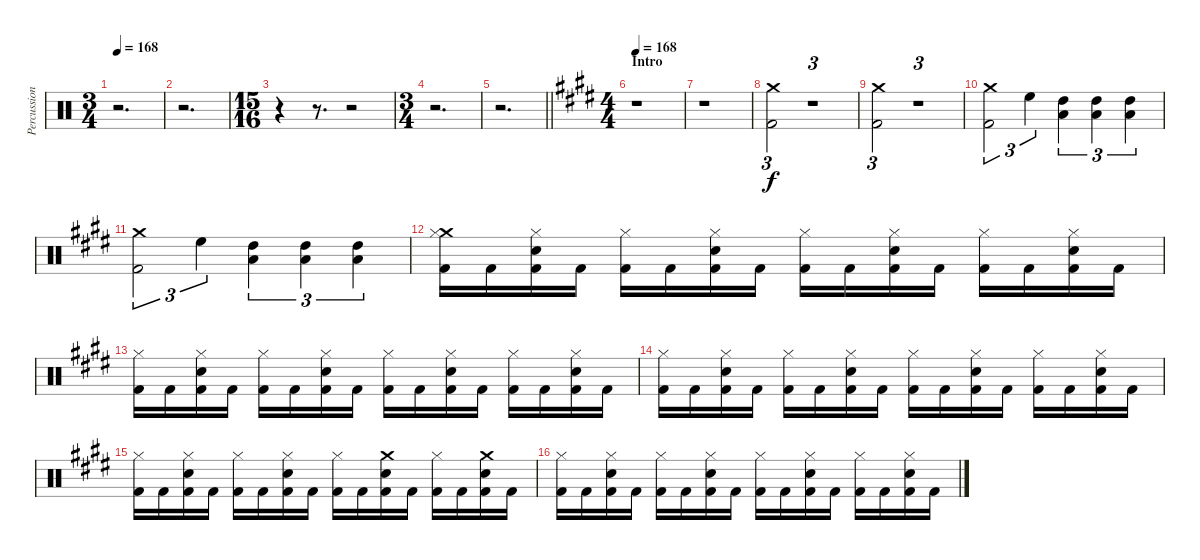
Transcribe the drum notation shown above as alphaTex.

\track ("Percussion (Thomen Stauch)" "Percussion") {instrument percussion}
\staff {score}
\articulation defaults
\ts (3 4)
\tempo 168
\clef neutral
\ks c
r.2{d dy f} |
r.2{d} |
\ts (15 16)
r.4 r.8{d} r.2 |
\ts (3 4)
r.2{d} |
\barLineRight lightlight
r.2{d} |
\ts (4 4)
\section ("" "Intro")
\tempo 168
\ks c#minor
r.1 |
r.1 |
("Crash medium (hit)" "Kick (hit) 2").2{tu (3 2)} r.1{tu (3 2) volume 0} |
("Crash medium (hit)" "Kick (hit) 2").2{tu (3 2) volume 13} r.1{tu (3 2) volume 0} |
("Crash medium (hit)" "Kick (hit) 2").2{tu (3 2) volume 13} "High Floor Tom (hit)".4{tu (3 2)} ("High Tom (hit)" "Low Tom (hit)").4{tu (3 2)} ("High Tom (hit)" "Low Tom (hit)").4{tu (3 2)} ("High Tom (hit)" "Low Tom (hit)").4{tu (3 2)} |
("Crash medium (hit)" "Kick (hit) 2").2{tu (3 2)} "High Floor Tom (hit)".4{tu (3 2)} ("High Tom (hit)" "Low Tom (hit)").4{tu (3 2)} ("High Tom (hit)" "Low Tom (hit)").4{tu (3 2)} ("High Tom (hit)" "Low Tom (hit)").4{tu (3 2)} |
("Crash medium (hit)" "Hi-Hat (closed)" "Kick (hit) 2").16 "Kick (hit) 2".16 ("Hi-Hat (closed)" "Snare (hit) 2" "Kick (hit) 2").16 "Kick (hit) 2".16 ("Hi-Hat (closed)" "Kick (hit) 2").16 "Kick (hit) 2".16 ("Hi-Hat (closed)" "Snare (hit) 2" "Kick (hit) 2").16 "Kick (hit) 2".16 ("Hi-Hat (closed)" "Kick (hit) 2").16 "Kick (hit) 2".16 ("Hi-Hat (closed)" "Snare (hit) 2" "Kick (hit) 2").16 "Kick (hit) 2".16 ("Hi-Hat (closed)" "Kick (hit) 2").16 "Kick (hit) 2".16 ("Hi-Hat (closed)" "Snare (hit) 2" "Kick (hit) 2").16 "Kick (hit) 2".16 |
("Hi-Hat (closed)" "Kick (hit) 2").16 "Kick (hit) 2".16 ("Hi-Hat (closed)" "Snare (hit) 2" "Kick (hit) 2").16 "Kick (hit) 2".16 ("Hi-Hat (closed)" "Kick (hit) 2").16 "Kick (hit) 2".16 ("Hi-Hat (closed)" "Snare (hit) 2" "Kick (hit) 2").16 "Kick (hit) 2".16 ("Hi-Hat (closed)" "Kick (hit) 2").16 "Kick (hit) 2".16 ("Hi-Hat (closed)" "Snare (hit) 2" "Kick (hit) 2").16 "Kick (hit) 2".16 ("Hi-Hat (closed)" "Kick (hit) 2").16 "Kick (hit) 2".16 ("Hi-Hat (closed)" "Snare (hit) 2" "Kick (hit) 2").16 "Kick (hit) 2".16 |
("Hi-Hat (closed)" "Kick (hit) 2").16 "Kick (hit) 2".16 ("Hi-Hat (closed)" "Snare (hit) 2" "Kick (hit) 2").16 "Kick (hit) 2".16 ("Hi-Hat (closed)" "Kick (hit) 2").16 "Kick (hit) 2".16 ("Hi-Hat (closed)" "Snare (hit) 2" "Kick (hit) 2").16 "Kick (hit) 2".16 ("Hi-Hat (closed)" "Kick (hit) 2").16 "Kick (hit) 2".16 ("Hi-Hat (closed)" "Snare (hit) 2" "Kick (hit) 2").16 "Kick (hit) 2".16 ("Hi-Hat (closed)" "Kick (hit) 2").16 "Kick (hit) 2".16 ("Hi-Hat (closed)" "Snare (hit) 2" "Kick (hit) 2").16 "Kick (hit) 2".16 |
("Hi-Hat (closed)" "Kick (hit) 2").16 "Kick (hit) 2".16 ("Hi-Hat (closed)" "Snare (hit) 2" "Kick (hit) 2").16 "Kick (hit) 2".16 ("Hi-Hat (closed)" "Kick (hit) 2").16 "Kick (hit) 2".16 ("Hi-Hat (closed)" "Snare (hit) 2" "Kick (hit) 2").16 "Kick (hit) 2".16 ("Hi-Hat (closed)" "Kick (hit) 2").16 "Kick (hit) 2".16 ("Crash medium (hit)" "Snare (hit) 2" "Kick (hit) 2").16 "Kick (hit) 2".16 ("Hi-Hat (closed)" "Kick (hit) 2").16 "Kick (hit) 2".16 ("Crash medium (hit)" "Snare (hit) 2" "Kick (hit) 2").16 "Kick (hit) 2".16 |
("Hi-Hat (closed)" "Kick (hit) 2").16 "Kick (hit) 2".16 ("Hi-Hat (closed)" "Snare (hit) 2" "Kick (hit) 2").16 "Kick (hit) 2".16 ("Hi-Hat (closed)" "Kick (hit) 2").16 "Kick (hit) 2".16 ("Hi-Hat (closed)" "Snare (hit) 2" "Kick (hit) 2").16 "Kick (hit) 2".16 ("Hi-Hat (closed)" "Kick (hit) 2").16 "Kick (hit) 2".16 ("Hi-Hat (closed)" "Snare (hit) 2" "Kick (hit) 2").16 "Kick (hit) 2".16 ("Hi-Hat (closed)" "Kick (hit) 2").16 "Kick (hit) 2".16 ("Hi-Hat (closed)" "Snare (hit) 2" "Kick (hit) 2").16 "Kick (hit) 2".16
